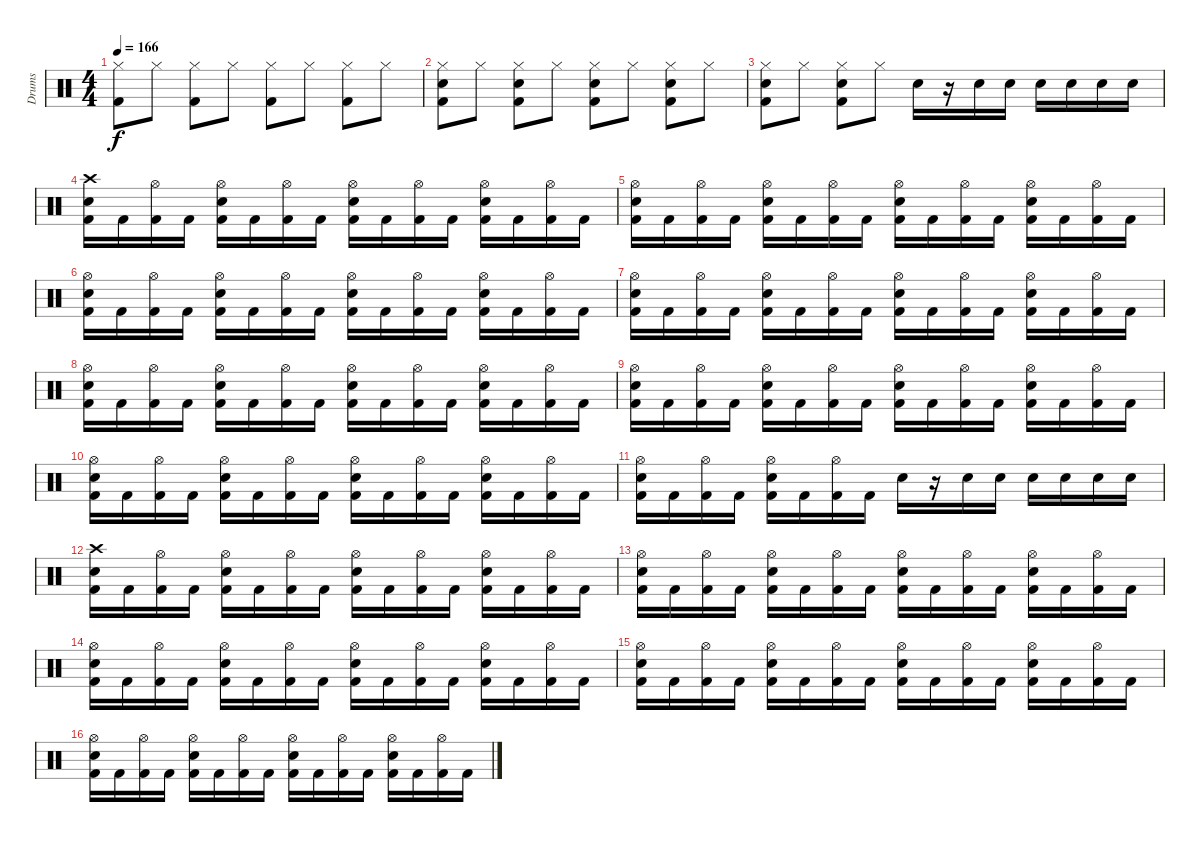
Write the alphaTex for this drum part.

\track ("Drums" "Drums") {instrument percussion}
\staff {score}
\articulation defaults
\ts (4 4)
\tempo 166
\clef neutral
\ks c
("Hi-Hat (closed)" "Kick (hit) 2").8{dy f} "Hi-Hat (closed)".8 ("Hi-Hat (closed)" "Kick (hit) 2").8 "Hi-Hat (closed)".8 ("Hi-Hat (closed)" "Kick (hit) 2").8 "Hi-Hat (closed)".8 ("Hi-Hat (closed)" "Kick (hit) 2").8 "Hi-Hat (closed)".8 |
("Hi-Hat (closed)" "Electric Snare (hit)" "Kick (hit) 2").8 "Hi-Hat (closed)".8 ("Hi-Hat (closed)" "Electric Snare (hit)" "Kick (hit) 2").8 "Hi-Hat (closed)".8 ("Hi-Hat (closed)" "Electric Snare (hit)" "Kick (hit) 2").8 "Hi-Hat (closed)".8 ("Hi-Hat (closed)" "Electric Snare (hit)" "Kick (hit) 2").8 "Hi-Hat (closed)".8 |
("Hi-Hat (closed)" "Electric Snare (hit)" "Kick (hit) 2").8 "Hi-Hat (closed)".8 ("Hi-Hat (closed)" "Electric Snare (hit)" "Kick (hit) 2").8 "Hi-Hat (closed)".8 "Electric Snare (hit)".16 r.16 "Electric Snare (hit)".16 "Electric Snare (hit)".16 "Electric Snare (hit)".16 "Electric Snare (hit)".16 "Electric Snare (hit)".16 "Electric Snare (hit)".16 |
("Crash high (hit)" "Electric Snare (hit)" "Kick (hit) 2").16 "Kick (hit) 2".16 ("Hi-Hat (open)" "Kick (hit) 2").16 "Kick (hit) 2".16 ("Hi-Hat (open)" "Electric Snare (hit)" "Kick (hit) 2").16 "Kick (hit) 2".16 ("Hi-Hat (open)" "Kick (hit) 2").16 "Kick (hit) 2".16 ("Hi-Hat (open)" "Electric Snare (hit)" "Kick (hit) 2").16 "Kick (hit) 2".16 ("Hi-Hat (open)" "Kick (hit) 2").16 "Kick (hit) 2".16 ("Hi-Hat (open)" "Electric Snare (hit)" "Kick (hit) 2").16 "Kick (hit) 2".16 ("Hi-Hat (open)" "Kick (hit) 2").16 "Kick (hit) 2".16 |
("Hi-Hat (open)" "Electric Snare (hit)" "Kick (hit) 2").16 "Kick (hit) 2".16 ("Hi-Hat (open)" "Kick (hit) 2").16 "Kick (hit) 2".16 ("Hi-Hat (open)" "Electric Snare (hit)" "Kick (hit) 2").16 "Kick (hit) 2".16 ("Hi-Hat (open)" "Kick (hit) 2").16 "Kick (hit) 2".16 ("Hi-Hat (open)" "Electric Snare (hit)" "Kick (hit) 2").16 "Kick (hit) 2".16 ("Hi-Hat (open)" "Kick (hit) 2").16 "Kick (hit) 2".16 ("Hi-Hat (open)" "Electric Snare (hit)" "Kick (hit) 2").16 "Kick (hit) 2".16 ("Hi-Hat (open)" "Kick (hit) 2").16 "Kick (hit) 2".16 |
("Hi-Hat (open)" "Electric Snare (hit)" "Kick (hit) 2").16 "Kick (hit) 2".16 ("Hi-Hat (open)" "Kick (hit) 2").16 "Kick (hit) 2".16 ("Hi-Hat (open)" "Electric Snare (hit)" "Kick (hit) 2").16 "Kick (hit) 2".16 ("Hi-Hat (open)" "Kick (hit) 2").16 "Kick (hit) 2".16 ("Hi-Hat (open)" "Electric Snare (hit)" "Kick (hit) 2").16 "Kick (hit) 2".16 ("Hi-Hat (open)" "Kick (hit) 2").16 "Kick (hit) 2".16 ("Hi-Hat (open)" "Electric Snare (hit)" "Kick (hit) 2").16 "Kick (hit) 2".16 ("Hi-Hat (open)" "Kick (hit) 2").16 "Kick (hit) 2".16 |
("Hi-Hat (open)" "Electric Snare (hit)" "Kick (hit) 2").16 "Kick (hit) 2".16 ("Hi-Hat (open)" "Kick (hit) 2").16 "Kick (hit) 2".16 ("Hi-Hat (open)" "Electric Snare (hit)" "Kick (hit) 2").16 "Kick (hit) 2".16 ("Hi-Hat (open)" "Kick (hit) 2").16 "Kick (hit) 2".16 ("Hi-Hat (open)" "Electric Snare (hit)" "Kick (hit) 2").16 "Kick (hit) 2".16 ("Hi-Hat (open)" "Kick (hit) 2").16 "Kick (hit) 2".16 ("Hi-Hat (open)" "Electric Snare (hit)" "Kick (hit) 2").16 "Kick (hit) 2".16 ("Hi-Hat (open)" "Kick (hit) 2").16 "Kick (hit) 2".16 |
("Hi-Hat (open)" "Electric Snare (hit)" "Kick (hit) 2").16 "Kick (hit) 2".16 ("Hi-Hat (open)" "Kick (hit) 2").16 "Kick (hit) 2".16 ("Hi-Hat (open)" "Electric Snare (hit)" "Kick (hit) 2").16 "Kick (hit) 2".16 ("Hi-Hat (open)" "Kick (hit) 2").16 "Kick (hit) 2".16 ("Hi-Hat (open)" "Electric Snare (hit)" "Kick (hit) 2").16 "Kick (hit) 2".16 ("Hi-Hat (open)" "Kick (hit) 2").16 "Kick (hit) 2".16 ("Hi-Hat (open)" "Electric Snare (hit)" "Kick (hit) 2").16 "Kick (hit) 2".16 ("Hi-Hat (open)" "Kick (hit) 2").16 "Kick (hit) 2".16 |
("Hi-Hat (open)" "Electric Snare (hit)" "Kick (hit) 2").16 "Kick (hit) 2".16 ("Hi-Hat (open)" "Kick (hit) 2").16 "Kick (hit) 2".16 ("Hi-Hat (open)" "Electric Snare (hit)" "Kick (hit) 2").16 "Kick (hit) 2".16 ("Hi-Hat (open)" "Kick (hit) 2").16 "Kick (hit) 2".16 ("Hi-Hat (open)" "Electric Snare (hit)" "Kick (hit) 2").16 "Kick (hit) 2".16 ("Hi-Hat (open)" "Kick (hit) 2").16 "Kick (hit) 2".16 ("Hi-Hat (open)" "Electric Snare (hit)" "Kick (hit) 2").16 "Kick (hit) 2".16 ("Hi-Hat (open)" "Kick (hit) 2").16 "Kick (hit) 2".16 |
("Hi-Hat (open)" "Electric Snare (hit)" "Kick (hit) 2").16 "Kick (hit) 2".16 ("Hi-Hat (open)" "Kick (hit) 2").16 "Kick (hit) 2".16 ("Hi-Hat (open)" "Electric Snare (hit)" "Kick (hit) 2").16 "Kick (hit) 2".16 ("Hi-Hat (open)" "Kick (hit) 2").16 "Kick (hit) 2".16 ("Hi-Hat (open)" "Electric Snare (hit)" "Kick (hit) 2").16 "Kick (hit) 2".16 ("Hi-Hat (open)" "Kick (hit) 2").16 "Kick (hit) 2".16 ("Hi-Hat (open)" "Electric Snare (hit)" "Kick (hit) 2").16 "Kick (hit) 2".16 ("Hi-Hat (open)" "Kick (hit) 2").16 "Kick (hit) 2".16 |
("Hi-Hat (open)" "Electric Snare (hit)" "Kick (hit) 2").16 "Kick (hit) 2".16 ("Hi-Hat (open)" "Kick (hit) 2").16 "Kick (hit) 2".16 ("Hi-Hat (open)" "Electric Snare (hit)" "Kick (hit) 2").16 "Kick (hit) 2".16 ("Hi-Hat (open)" "Kick (hit) 2").16 "Kick (hit) 2".16 "Electric Snare (hit)".16 r.16 "Electric Snare (hit)".16 "Electric Snare (hit)".16 "Electric Snare (hit)".16 "Electric Snare (hit)".16 "Electric Snare (hit)".16 "Electric Snare (hit)".16 |
("Crash high (hit)" "Electric Snare (hit)" "Kick (hit) 2").16 "Kick (hit) 2".16 ("Hi-Hat (open)" "Kick (hit) 2").16 "Kick (hit) 2".16 ("Hi-Hat (open)" "Electric Snare (hit)" "Kick (hit) 2").16 "Kick (hit) 2".16 ("Hi-Hat (open)" "Kick (hit) 2").16 "Kick (hit) 2".16 ("Hi-Hat (open)" "Electric Snare (hit)" "Kick (hit) 2").16 "Kick (hit) 2".16 ("Hi-Hat (open)" "Kick (hit) 2").16 "Kick (hit) 2".16 ("Hi-Hat (open)" "Electric Snare (hit)" "Kick (hit) 2").16 "Kick (hit) 2".16 ("Hi-Hat (open)" "Kick (hit) 2").16 "Kick (hit) 2".16 |
("Hi-Hat (open)" "Electric Snare (hit)" "Kick (hit) 2").16 "Kick (hit) 2".16 ("Hi-Hat (open)" "Kick (hit) 2").16 "Kick (hit) 2".16 ("Hi-Hat (open)" "Electric Snare (hit)" "Kick (hit) 2").16 "Kick (hit) 2".16 ("Hi-Hat (open)" "Kick (hit) 2").16 "Kick (hit) 2".16 ("Hi-Hat (open)" "Electric Snare (hit)" "Kick (hit) 2").16 "Kick (hit) 2".16 ("Hi-Hat (open)" "Kick (hit) 2").16 "Kick (hit) 2".16 ("Hi-Hat (open)" "Electric Snare (hit)" "Kick (hit) 2").16 "Kick (hit) 2".16 ("Hi-Hat (open)" "Kick (hit) 2").16 "Kick (hit) 2".16 |
("Hi-Hat (open)" "Electric Snare (hit)" "Kick (hit) 2").16 "Kick (hit) 2".16 ("Hi-Hat (open)" "Kick (hit) 2").16 "Kick (hit) 2".16 ("Hi-Hat (open)" "Electric Snare (hit)" "Kick (hit) 2").16 "Kick (hit) 2".16 ("Hi-Hat (open)" "Kick (hit) 2").16 "Kick (hit) 2".16 ("Hi-Hat (open)" "Electric Snare (hit)" "Kick (hit) 2").16 "Kick (hit) 2".16 ("Hi-Hat (open)" "Kick (hit) 2").16 "Kick (hit) 2".16 ("Hi-Hat (open)" "Electric Snare (hit)" "Kick (hit) 2").16 "Kick (hit) 2".16 ("Hi-Hat (open)" "Kick (hit) 2").16 "Kick (hit) 2".16 |
("Hi-Hat (open)" "Electric Snare (hit)" "Kick (hit) 2").16 "Kick (hit) 2".16 ("Hi-Hat (open)" "Kick (hit) 2").16 "Kick (hit) 2".16 ("Hi-Hat (open)" "Electric Snare (hit)" "Kick (hit) 2").16 "Kick (hit) 2".16 ("Hi-Hat (open)" "Kick (hit) 2").16 "Kick (hit) 2".16 ("Hi-Hat (open)" "Electric Snare (hit)" "Kick (hit) 2").16 "Kick (hit) 2".16 ("Hi-Hat (open)" "Kick (hit) 2").16 "Kick (hit) 2".16 ("Hi-Hat (open)" "Electric Snare (hit)" "Kick (hit) 2").16 "Kick (hit) 2".16 ("Hi-Hat (open)" "Kick (hit) 2").16 "Kick (hit) 2".16 |
("Hi-Hat (open)" "Electric Snare (hit)" "Kick (hit) 2").16 "Kick (hit) 2".16 ("Hi-Hat (open)" "Kick (hit) 2").16 "Kick (hit) 2".16 ("Hi-Hat (open)" "Electric Snare (hit)" "Kick (hit) 2").16 "Kick (hit) 2".16 ("Hi-Hat (open)" "Kick (hit) 2").16 "Kick (hit) 2".16 ("Hi-Hat (open)" "Electric Snare (hit)" "Kick (hit) 2").16 "Kick (hit) 2".16 ("Hi-Hat (open)" "Kick (hit) 2").16 "Kick (hit) 2".16 ("Hi-Hat (open)" "Electric Snare (hit)" "Kick (hit) 2").16 "Kick (hit) 2".16 ("Hi-Hat (open)" "Kick (hit) 2").16 "Kick (hit) 2".16
